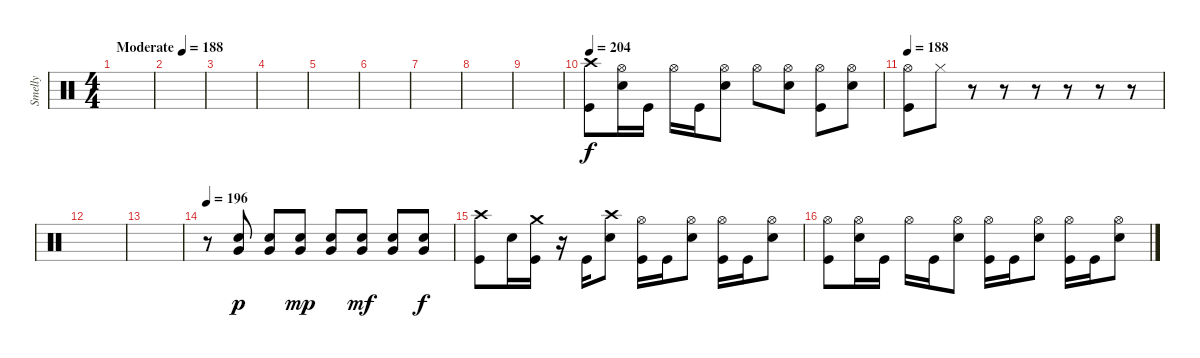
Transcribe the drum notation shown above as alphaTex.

\track ("Smelly" "Smelly") {instrument percussion}
\staff {score}
\articulation defaults
\ts (4 4)
\tempo (188 "Moderate")
\clef neutral
\ks c
|
|
|
|
|
|
|
|
|
\tempo 204
("Crash high (hit)" "Kick (hit)").8 ("Hi-Hat (open)" "Snare (hit) 2").16 "Kick (hit)".16 "Hi-Hat (open)".16 "Kick (hit)".16 ("Hi-Hat (open)" "Snare (hit) 2").8 "Hi-Hat (open)".8 ("Hi-Hat (open)" "Snare (hit) 2").8 ("Hi-Hat (open)" "Kick (hit)").8 ("Hi-Hat (open)" "Snare (hit) 2").8 |
\tempo 188
("Hi-Hat (open)" "Kick (hit)").8 "Hi-Hat (closed)".8 r.8 r.8 r.8 r.8 r.8 r.8 |
|
|
\tempo 196
r.8 ("Very Low Tom (hit)" "Snare (hit) 2").8{dy p} ("Very Low Tom (hit)" "Snare (hit) 2").8 ("Very Low Tom (hit)" "Snare (hit) 2").8{dy mp} ("Very Low Tom (hit)" "Snare (hit) 2").8 ("Very Low Tom (hit)" "Snare (hit) 2").8{dy mf} ("Very Low Tom (hit)" "Snare (hit) 2").8 ("Very Low Tom (hit)" "Snare (hit) 2").8{dy f} |
("Crash high (hit)" "Kick (hit)").8 "Snare (hit) 2".16 ("Crash medium (hit)" "Kick (hit)").16 r.16 "Kick (hit)".16 ("Crash high (hit)" "Snare (hit) 2").8 ("Hi-Hat (open)" "Kick (hit)").16 "Kick (hit)".16 ("Hi-Hat (open)" "Snare (hit) 2").8 ("Hi-Hat (open)" "Kick (hit)").16 "Kick (hit)".16 ("Hi-Hat (open)" "Snare (hit) 2").8 |
("Hi-Hat (open)" "Kick (hit)").8 ("Hi-Hat (open)" "Snare (hit) 2").16 "Kick (hit)".16 "Hi-Hat (open)".16 "Kick (hit)".16 ("Hi-Hat (open)" "Snare (hit) 2").8 ("Hi-Hat (open)" "Kick (hit)").16 "Kick (hit)".16 ("Hi-Hat (open)" "Snare (hit) 2").8 ("Hi-Hat (open)" "Kick (hit)").16 "Kick (hit)".16 ("Hi-Hat (open)" "Snare (hit) 2").8
